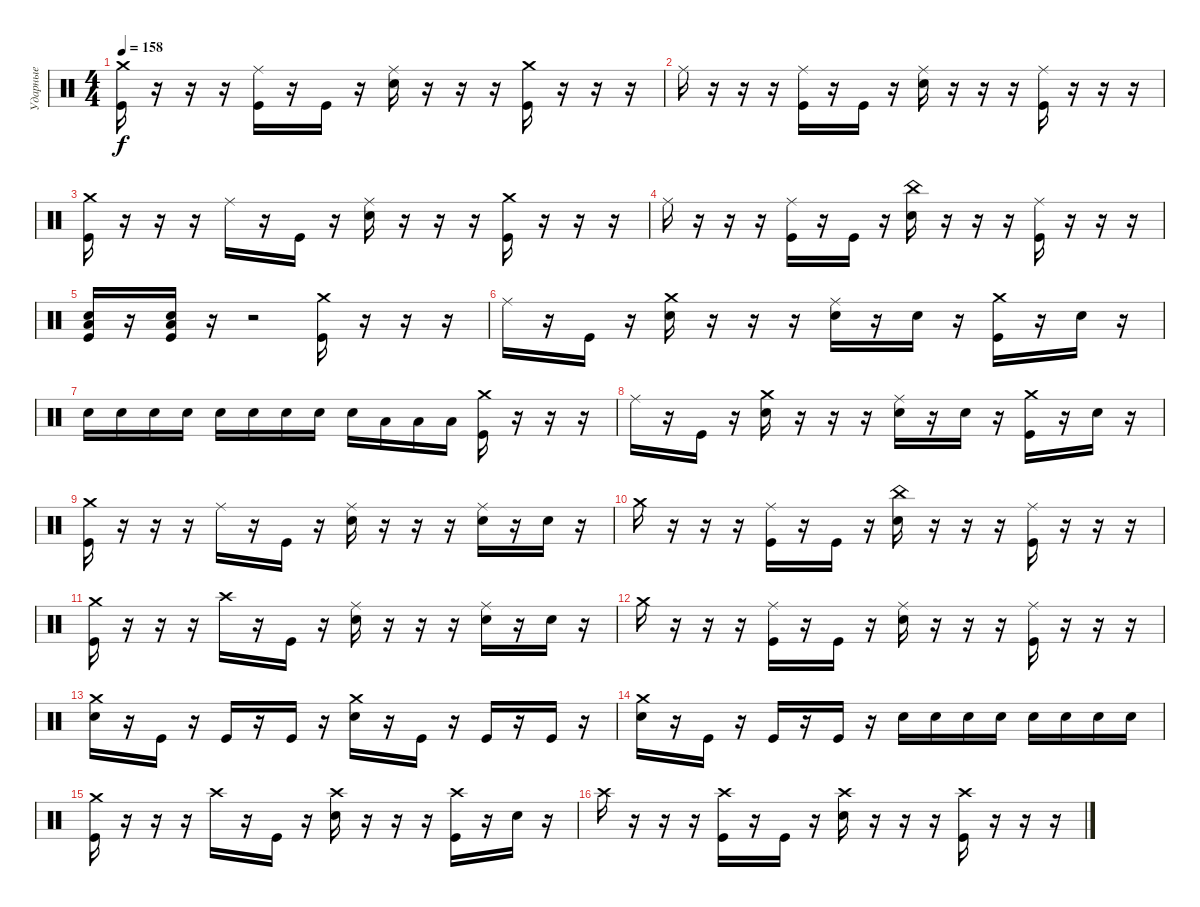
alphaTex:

\track ("Ударные" "Ударные") {instrument percussion}
\staff {score}
\articulation defaults
\ts (4 4)
\tempo 158
\clef neutral
\ks c
("Crash medium (hit)" "Kick (hit)").16{dy f} r.16 r.16 r.16 ("Ride (middle)" "Kick (hit)").16 r.16 "Kick (hit)".16 r.16 ("Ride (middle)" "Electric Snare (hit)").16 r.16 r.16 r.16 ("Crash medium (hit)" "Kick (hit)").16 r.16 r.16 r.16 |
"Ride (middle)".16 r.16 r.16 r.16 ("Ride (middle)" "Kick (hit)").16 r.16 "Kick (hit)".16 r.16 ("Ride (middle)" "Electric Snare (hit)").16 r.16 r.16 r.16 ("Ride (middle)" "Kick (hit)").16 r.16 r.16 r.16 |
("Crash medium (hit)" "Kick (hit)").16 r.16 r.16 r.16 "Ride (middle)".16 r.16 "Kick (hit)".16 r.16 ("Ride (middle)" "Electric Snare (hit)").16 r.16 r.16 r.16 ("Crash medium (hit)" "Kick (hit)").16 r.16 r.16 r.16 |
"Ride (middle)".16 r.16 r.16 r.16 ("Ride (middle)" "Kick (hit)").16 r.16 "Kick (hit)".16 r.16 ("China (hit)" "Electric Snare (hit)").16 r.16 r.16 r.16 ("Ride (middle)" "Kick (hit)").16 r.16 r.16 r.16 |
("Low Floor Tom (hit)" "Electric Snare (hit)" "Kick (hit)").16 r.16 ("Low Floor Tom (hit)" "Electric Snare (hit)" "Kick (hit)").16 r.16 r.2 ("Crash medium (hit)" "Kick (hit)").16 r.16 r.16 r.16 |
"Ride (middle)".16 r.16 "Kick (hit)".16 r.16 ("Crash medium (hit)" "Electric Snare (hit)").16 r.16 r.16 r.16 ("Ride (middle)" "Electric Snare (hit)").16 r.16 "Electric Snare (hit)".16 r.16 ("Crash medium (hit)" "Kick (hit)").16 r.16 "Electric Snare (hit)".16 r.16 |
"Electric Snare (hit)".16 "Electric Snare (hit)".16 "Electric Snare (hit)".16 "Electric Snare (hit)".16 "Electric Snare (hit)".16 "Electric Snare (hit)".16 "Electric Snare (hit)".16 "Electric Snare (hit)".16 "Electric Snare (hit)".16 "Low Floor Tom (hit)".16 "Low Floor Tom (hit)".16 "Low Floor Tom (hit)".16 ("Crash medium (hit)" "Kick (hit)").16 r.16 r.16 r.16 |
"Ride (middle)".16 r.16 "Kick (hit)".16 r.16 ("Crash medium (hit)" "Electric Snare (hit)").16 r.16 r.16 r.16 ("Ride (middle)" "Electric Snare (hit)").16 r.16 "Electric Snare (hit)".16 r.16 ("Crash medium (hit)" "Kick (hit)").16 r.16 "Electric Snare (hit)".16 r.16 |
("Crash medium (hit)" "Kick (hit)").16 r.16 r.16 r.16 "Ride (middle)".16 r.16 "Kick (hit)".16 r.16 ("Ride (middle)" "Electric Snare (hit)").16 r.16 r.16 r.16 ("Ride (middle)" "Electric Snare (hit)").16 r.16 "Electric Snare (hit)".16 r.16 |
"Crash medium (hit)".16 r.16 r.16 r.16 ("Ride (middle)" "Kick (hit)").16 r.16 "Kick (hit)".16 r.16 ("China (hit)" "Electric Snare (hit)").16 r.16 r.16 r.16 ("Ride (middle)" "Kick (hit)").16 r.16 r.16 r.16 |
("Crash medium (hit)" "Kick (hit)").16 r.16 r.16 r.16 "Crash high (hit)".16 r.16 "Kick (hit)".16 r.16 ("Ride (middle)" "Electric Snare (hit)").16 r.16 r.16 r.16 ("Ride (middle)" "Electric Snare (hit)").16 r.16 "Electric Snare (hit)".16 r.16 |
"Crash medium (hit)".16 r.16 r.16 r.16 ("Ride (middle)" "Kick (hit)").16 r.16 "Kick (hit)".16 r.16 ("Ride (middle)" "Electric Snare (hit)").16 r.16 r.16 r.16 ("Ride (middle)" "Kick (hit)").16 r.16 r.16 r.16 |
("Crash medium (hit)" "Electric Snare (hit)").16 r.16 "Kick (hit)".16 r.16 "Kick (hit)".16 r.16 "Kick (hit)".16 r.16 ("Crash medium (hit)" "Electric Snare (hit)").16 r.16 "Kick (hit)".16 r.16 "Kick (hit)".16 r.16 "Kick (hit)".16 r.16 |
("Crash medium (hit)" "Electric Snare (hit)").16 r.16 "Kick (hit)".16 r.16 "Kick (hit)".16 r.16 "Kick (hit)".16 r.16 "Electric Snare (hit)".16 "Electric Snare (hit)".16 "Electric Snare (hit)".16 "Electric Snare (hit)".16 "Electric Snare (hit)".16 "Electric Snare (hit)".16 "Electric Snare (hit)".16 "Electric Snare (hit)".16 |
("Crash medium (hit)" "Kick (hit)").16 r.16 r.16 r.16 "Crash high (hit)".16 r.16 "Kick (hit)".16 r.16 ("Crash high (hit)" "Electric Snare (hit)").16 r.16 r.16 r.16 ("Crash high (hit)" "Kick (hit)").16 r.16 "Electric Snare (hit)".16 r.16 |
"Crash high (hit)".16 r.16 r.16 r.16 ("Crash high (hit)" "Kick (hit)").16 r.16 "Kick (hit)".16 r.16 ("Crash high (hit)" "Electric Snare (hit)").16 r.16 r.16 r.16 ("Crash high (hit)" "Kick (hit)").16 r.16 r.16 r.16
